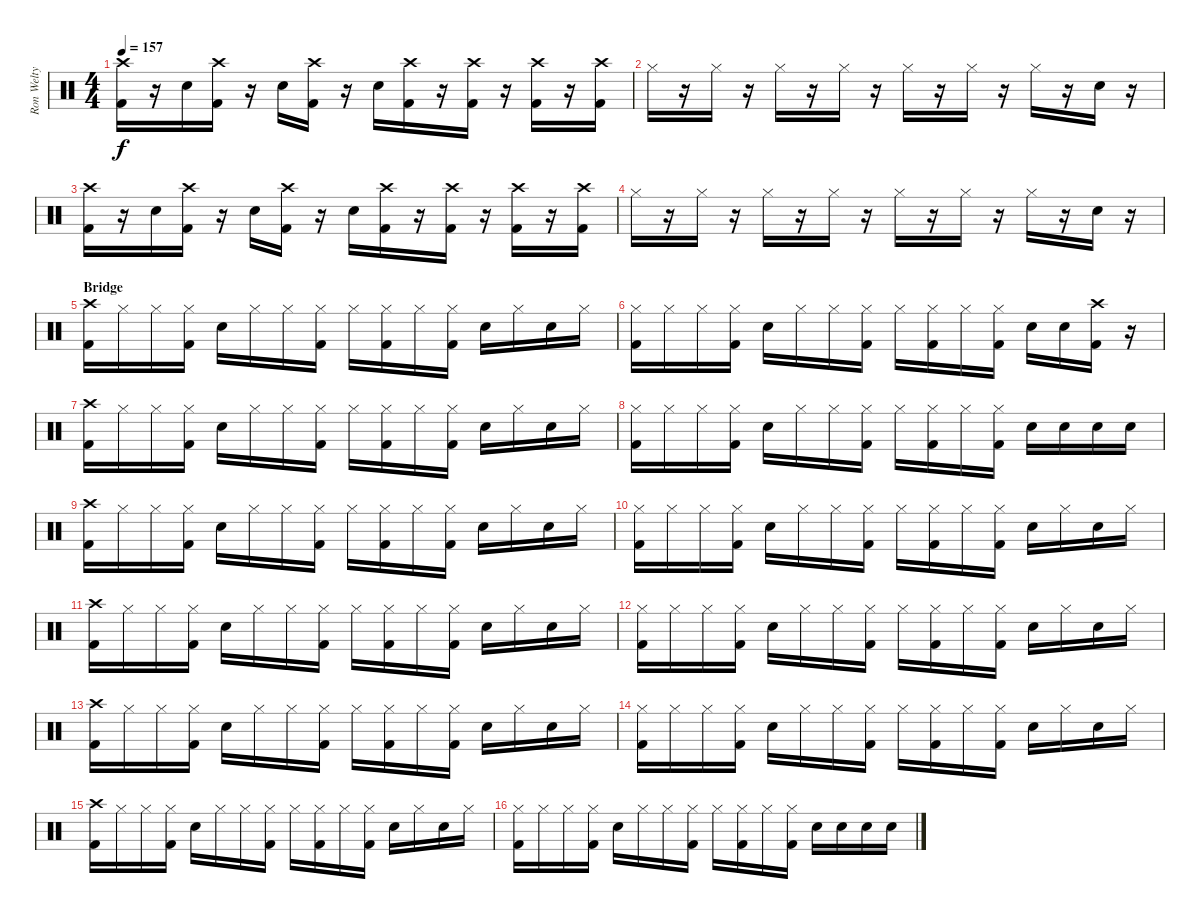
\track ("Ron Welty - Drums" "Ron Welty ") {instrument percussion}
\staff {score}
\articulation defaults
\ts (4 4)
\tempo 157
\clef neutral
\ks c
("Crash high (hit)" "Kick (hit) 2").16{dy f} r.16 "Snare (hit) 2".16 ("Crash high (hit)" "Kick (hit) 2").16 r.16 "Snare (hit) 2".16 ("Crash high (hit)" "Kick (hit) 2").16 r.16 "Snare (hit) 2".16 ("Crash high (hit)" "Kick (hit) 2").16 r.16 ("Crash high (hit)" "Kick (hit) 2").16 r.16 ("Crash high (hit)" "Kick (hit) 2").16 r.16 ("Crash high (hit)" "Kick (hit) 2").16 |
"Hi-Hat (closed)".16 r.16 "Hi-Hat (closed)".16 r.16 "Hi-Hat (closed)".16 r.16 "Hi-Hat (closed)".16 r.16 "Hi-Hat (closed)".16 r.16 "Hi-Hat (closed)".16 r.16 "Hi-Hat (closed)".16 r.16 "Snare (hit) 2".16 r.16 |
("Crash high (hit)" "Kick (hit) 2").16 r.16 "Snare (hit) 2".16 ("Crash high (hit)" "Kick (hit) 2").16 r.16 "Snare (hit) 2".16 ("Crash high (hit)" "Kick (hit) 2").16 r.16 "Snare (hit) 2".16 ("Crash high (hit)" "Kick (hit) 2").16 r.16 ("Crash high (hit)" "Kick (hit) 2").16 r.16 ("Crash high (hit)" "Kick (hit) 2").16 r.16 ("Crash high (hit)" "Kick (hit) 2").16 |
"Hi-Hat (closed)".16 r.16 "Hi-Hat (closed)".16 r.16 "Hi-Hat (closed)".16 r.16 "Hi-Hat (closed)".16 r.16 "Hi-Hat (closed)".16 r.16 "Hi-Hat (closed)".16 r.16 "Hi-Hat (closed)".16 r.16 "Snare (hit) 2".16 r.16 |
\section ("" "Bridge")
("Crash high (hit)" "Kick (hit) 2").16 "Hi-Hat (closed)".16 "Hi-Hat (closed)".16 ("Hi-Hat (closed)" "Kick (hit) 2").16 "Snare (hit) 2".16 "Hi-Hat (closed)".16 "Hi-Hat (closed)".16 ("Hi-Hat (closed)" "Kick (hit) 2").16 "Hi-Hat (closed)".16 ("Hi-Hat (closed)" "Kick (hit) 2").16 "Hi-Hat (closed)".16 ("Hi-Hat (closed)" "Kick (hit) 2").16 "Snare (hit) 2".16 "Hi-Hat (closed)".16 "Snare (hit) 2".16 "Hi-Hat (closed)".16 |
("Hi-Hat (closed)" "Kick (hit) 2").16 "Hi-Hat (closed)".16 "Hi-Hat (closed)".16 ("Hi-Hat (closed)" "Kick (hit) 2").16 "Snare (hit) 2".16 "Hi-Hat (closed)".16 "Hi-Hat (closed)".16 ("Hi-Hat (closed)" "Kick (hit) 2").16 "Hi-Hat (closed)".16 ("Hi-Hat (closed)" "Kick (hit) 2").16 "Hi-Hat (closed)".16 ("Hi-Hat (closed)" "Kick (hit) 2").16 "Snare (hit) 2".16 "Snare (hit) 2".16 ("Crash high (hit)" "Kick (hit) 2").16 r.16 |
("Crash high (hit)" "Kick (hit) 2").16 "Hi-Hat (closed)".16 "Hi-Hat (closed)".16 ("Hi-Hat (closed)" "Kick (hit) 2").16 "Snare (hit) 2".16 "Hi-Hat (closed)".16 "Hi-Hat (closed)".16 ("Hi-Hat (closed)" "Kick (hit) 2").16 "Hi-Hat (closed)".16 ("Hi-Hat (closed)" "Kick (hit) 2").16 "Hi-Hat (closed)".16 ("Hi-Hat (closed)" "Kick (hit) 2").16 "Snare (hit) 2".16 "Hi-Hat (closed)".16 "Snare (hit) 2".16 "Hi-Hat (closed)".16 |
("Hi-Hat (closed)" "Kick (hit) 2").16 "Hi-Hat (closed)".16 "Hi-Hat (closed)".16 ("Hi-Hat (closed)" "Kick (hit) 2").16 "Snare (hit) 2".16 "Hi-Hat (closed)".16 "Hi-Hat (closed)".16 ("Hi-Hat (closed)" "Kick (hit) 2").16 "Hi-Hat (closed)".16 ("Hi-Hat (closed)" "Kick (hit) 2").16 "Hi-Hat (closed)".16 ("Hi-Hat (closed)" "Kick (hit) 2").16 "Snare (hit) 2".16 "Snare (hit) 2".16 "Snare (hit) 2".16 "Snare (hit) 2".16 |
("Crash high (hit)" "Kick (hit) 2").16 "Hi-Hat (closed)".16 "Hi-Hat (closed)".16 ("Hi-Hat (closed)" "Kick (hit) 2").16 "Snare (hit) 2".16 "Hi-Hat (closed)".16 "Hi-Hat (closed)".16 ("Hi-Hat (closed)" "Kick (hit) 2").16 "Hi-Hat (closed)".16 ("Hi-Hat (closed)" "Kick (hit) 2").16 "Hi-Hat (closed)".16 ("Hi-Hat (closed)" "Kick (hit) 2").16 "Snare (hit) 2".16 "Hi-Hat (closed)".16 "Snare (hit) 2".16 "Hi-Hat (closed)".16 |
("Hi-Hat (closed)" "Kick (hit) 2").16 "Hi-Hat (closed)".16 "Hi-Hat (closed)".16 ("Hi-Hat (closed)" "Kick (hit) 2").16 "Snare (hit) 2".16 "Hi-Hat (closed)".16 "Hi-Hat (closed)".16 ("Hi-Hat (closed)" "Kick (hit) 2").16 "Hi-Hat (closed)".16 ("Hi-Hat (closed)" "Kick (hit) 2").16 "Hi-Hat (closed)".16 ("Hi-Hat (closed)" "Kick (hit) 2").16 "Snare (hit) 2".16 "Hi-Hat (closed)".16 "Snare (hit) 2".16 "Hi-Hat (closed)".16 |
("Crash high (hit)" "Kick (hit) 2").16 "Hi-Hat (closed)".16 "Hi-Hat (closed)".16 ("Hi-Hat (closed)" "Kick (hit) 2").16 "Snare (hit) 2".16 "Hi-Hat (closed)".16 "Hi-Hat (closed)".16 ("Hi-Hat (closed)" "Kick (hit) 2").16 "Hi-Hat (closed)".16 ("Hi-Hat (closed)" "Kick (hit) 2").16 "Hi-Hat (closed)".16 ("Hi-Hat (closed)" "Kick (hit) 2").16 "Snare (hit) 2".16 "Hi-Hat (closed)".16 "Snare (hit) 2".16 "Hi-Hat (closed)".16 |
("Hi-Hat (closed)" "Kick (hit) 2").16 "Hi-Hat (closed)".16 "Hi-Hat (closed)".16 ("Hi-Hat (closed)" "Kick (hit) 2").16 "Snare (hit) 2".16 "Hi-Hat (closed)".16 "Hi-Hat (closed)".16 ("Hi-Hat (closed)" "Kick (hit) 2").16 "Hi-Hat (closed)".16 ("Hi-Hat (closed)" "Kick (hit) 2").16 "Hi-Hat (closed)".16 ("Hi-Hat (closed)" "Kick (hit) 2").16 "Snare (hit) 2".16 "Hi-Hat (closed)".16 "Snare (hit) 2".16 "Hi-Hat (closed)".16 |
("Crash high (hit)" "Kick (hit) 2").16 "Hi-Hat (closed)".16 "Hi-Hat (closed)".16 ("Hi-Hat (closed)" "Kick (hit) 2").16 "Snare (hit) 2".16 "Hi-Hat (closed)".16 "Hi-Hat (closed)".16 ("Hi-Hat (closed)" "Kick (hit) 2").16 "Hi-Hat (closed)".16 ("Hi-Hat (closed)" "Kick (hit) 2").16 "Hi-Hat (closed)".16 ("Hi-Hat (closed)" "Kick (hit) 2").16 "Snare (hit) 2".16 "Hi-Hat (closed)".16 "Snare (hit) 2".16 "Hi-Hat (closed)".16 |
("Hi-Hat (closed)" "Kick (hit) 2").16 "Hi-Hat (closed)".16 "Hi-Hat (closed)".16 ("Hi-Hat (closed)" "Kick (hit) 2").16 "Snare (hit) 2".16 "Hi-Hat (closed)".16 "Hi-Hat (closed)".16 ("Hi-Hat (closed)" "Kick (hit) 2").16 "Hi-Hat (closed)".16 ("Hi-Hat (closed)" "Kick (hit) 2").16 "Hi-Hat (closed)".16 ("Hi-Hat (closed)" "Kick (hit) 2").16 "Snare (hit) 2".16 "Hi-Hat (closed)".16 "Snare (hit) 2".16 "Hi-Hat (closed)".16 |
("Crash high (hit)" "Kick (hit) 2").16 "Hi-Hat (closed)".16 "Hi-Hat (closed)".16 ("Hi-Hat (closed)" "Kick (hit) 2").16 "Snare (hit) 2".16 "Hi-Hat (closed)".16 "Hi-Hat (closed)".16 ("Hi-Hat (closed)" "Kick (hit) 2").16 "Hi-Hat (closed)".16 ("Hi-Hat (closed)" "Kick (hit) 2").16 "Hi-Hat (closed)".16 ("Hi-Hat (closed)" "Kick (hit) 2").16 "Snare (hit) 2".16 "Hi-Hat (closed)".16 "Snare (hit) 2".16 "Hi-Hat (closed)".16 |
("Hi-Hat (closed)" "Kick (hit) 2").16 "Hi-Hat (closed)".16 "Hi-Hat (closed)".16 ("Hi-Hat (closed)" "Kick (hit) 2").16 "Snare (hit) 2".16 "Hi-Hat (closed)".16 "Hi-Hat (closed)".16 ("Hi-Hat (closed)" "Kick (hit) 2").16 "Hi-Hat (closed)".16 ("Hi-Hat (closed)" "Kick (hit) 2").16 "Hi-Hat (closed)".16 ("Hi-Hat (closed)" "Kick (hit) 2").16 "Snare (hit) 2".16 "Snare (hit) 2".16 "Snare (hit) 2".16 "Snare (hit) 2".16
